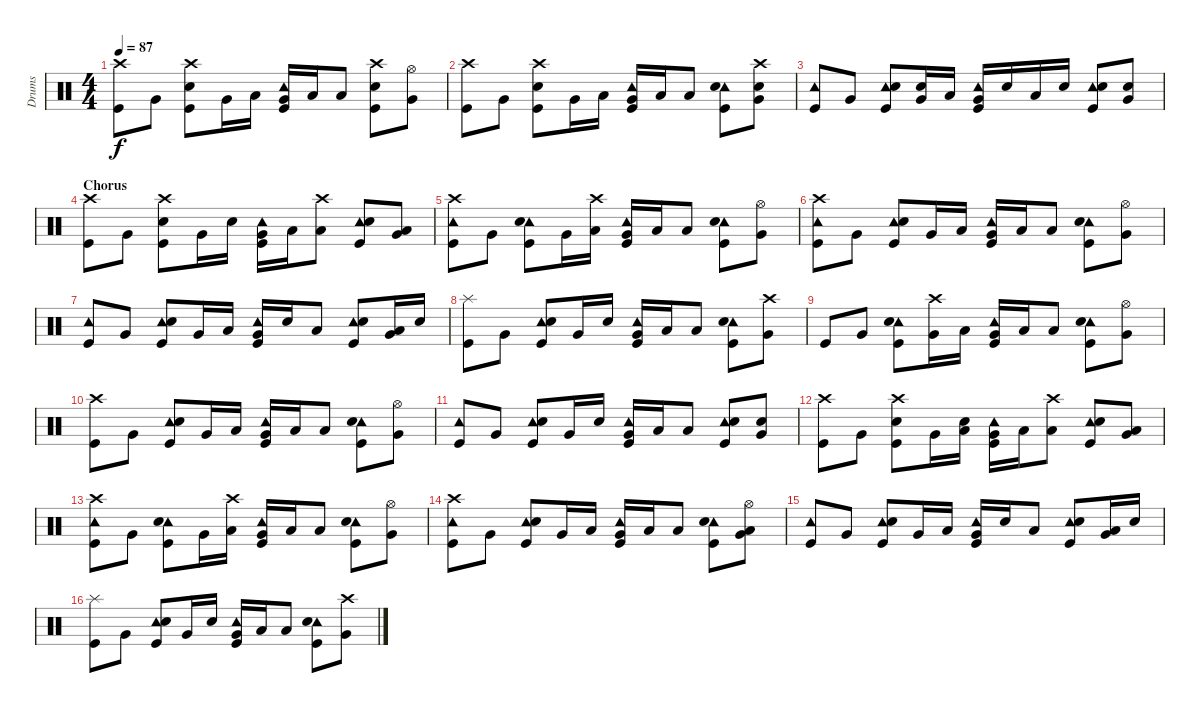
\track ("Drums" "Drums") {instrument percussion}
\staff {score}
\articulation defaults
\ts (4 4)
\tempo 87
\clef neutral
\ks c
("Crash high (hit)" "Kick (hit)").8{dy f} "Very Low Tom (hit)".8 ("Crash high (hit)" "Snare (hit) 2" "Kick (hit)").8 "Very Low Tom (hit)".16 "Low Tom (hit)".16 ("Tambourine (hit)" "Very Low Tom (hit)" "Kick (hit)").16 "Low Tom (hit)".16 "Low Floor Tom (hit)".8 ("Crash high (hit)" "Snare (hit) 2" "Kick (hit)").8 ("Hi-Hat (open)" "Very Low Tom (hit)").8 |
("Crash high (hit)" "Kick (hit)").8 "Very Low Tom (hit)".8 ("Crash high (hit)" "Snare (hit) 2" "Kick (hit)").8 "Very Low Tom (hit)".16 "Low Tom (hit)".16 ("Tambourine (hit)" "Very Low Tom (hit)" "Kick (hit)").16 "Low Tom (hit)".16 "Low Floor Tom (hit)".8 ("Tambourine (hit)" "Snare (hit) 2" "Kick (hit)").8 ("Crash high (hit)" "Snare (hit) 2" "Very Low Tom (hit)").8 |
("Tambourine (hit)" "Kick (hit)").8 "Very Low Tom (hit)".8 ("Tambourine (hit)" "Snare (hit) 2" "Kick (hit)").8 ("Snare (hit) 2" "Very Low Tom (hit)").16 "Low Tom (hit)".16 ("Tambourine (hit)" "Very Low Tom (hit)" "Kick (hit)").16 "Snare (hit) 2".16 "Low Floor Tom (hit)".16 "Snare (hit) 2".16 ("Tambourine (hit)" "Snare (hit) 2" "Kick (hit)").8 ("Snare (hit) 2" "Very Low Tom (hit)").8 |
\section ("" "Chorus")
("Crash high (hit)" "Kick (hit)").8 "Very Low Tom (hit)".8 ("Crash high (hit)" "Snare (hit) 2" "Kick (hit)").8 "Very Low Tom (hit)".16 "Snare (hit) 2".16 ("Tambourine (hit)" "Very Low Tom (hit)" "Kick (hit)").16 "Low Tom (hit)".16 ("Crash high (hit)" "Low Floor Tom (hit)").8 ("Tambourine (hit)" "Snare (hit) 2" "Kick (hit)").8 ("Low Tom (hit)" "Very Low Tom (hit)").8 |
("Tambourine (hit)" "Crash high (hit)" "Kick (hit)").8 "Very Low Tom (hit)".8 ("Tambourine (hit)" "Snare (hit) 2" "Kick (hit)").8 "Very Low Tom (hit)".16 ("Crash high (hit)" "Low Tom (hit)").16 ("Tambourine (hit)" "Very Low Tom (hit)" "Kick (hit)").16 "Low Tom (hit)".16 "Low Floor Tom (hit)".8 ("Tambourine (hit)" "Snare (hit) 2" "Kick (hit)").8 ("Hi-Hat (open)" "Very Low Tom (hit)").8 |
("Tambourine (hit)" "Crash high (hit)" "Kick (hit)").8 "Very Low Tom (hit)".8 ("Tambourine (hit)" "Snare (hit) 2" "Kick (hit)").8 "Very Low Tom (hit)".16 "Low Tom (hit)".16 ("Tambourine (hit)" "Very Low Tom (hit)" "Kick (hit)").16 "Low Tom (hit)".16 "Low Floor Tom (hit)".8 ("Tambourine (hit)" "Snare (hit) 2" "Kick (hit)").8 ("Hi-Hat (open)" "Very Low Tom (hit)").8 |
("Tambourine (hit)" "Kick (hit)").8 "Very Low Tom (hit)".8 ("Tambourine (hit)" "Snare (hit) 2" "Kick (hit)").8 "Very Low Tom (hit)".16 "Low Tom (hit)".16 ("Tambourine (hit)" "Very Low Tom (hit)" "Kick (hit)").16 "Snare (hit) 2".16 "Low Floor Tom (hit)".8 ("Tambourine (hit)" "Snare (hit) 2" "Kick (hit)").8 ("Low Tom (hit)" "Very Low Tom (hit)").16 "Snare (hit) 2".16 |
("Splash (hit)" "Kick (hit)").8 "Very Low Tom (hit)".8 ("Tambourine (hit)" "Snare (hit) 2" "Kick (hit)").8 "Very Low Tom (hit)".16 "Snare (hit) 2".16 ("Tambourine (hit)" "Very Low Tom (hit)" "Kick (hit)").16 "Low Tom (hit)".16 "Low Floor Tom (hit)".8 ("Tambourine (hit)" "Snare (hit) 2" "Kick (hit)").8 ("Crash high (hit)" "Very Low Tom (hit)").8 |
"Kick (hit)".8 "Very Low Tom (hit)".8 ("Tambourine (hit)" "Snare (hit) 2" "Kick (hit)").8 ("Crash high (hit)" "Very Low Tom (hit)").16 "Low Tom (hit)".16 ("Tambourine (hit)" "Very Low Tom (hit)" "Kick (hit)").16 "Low Tom (hit)".16 "Low Floor Tom (hit)".8 ("Tambourine (hit)" "Snare (hit) 2" "Kick (hit)").8 ("Hi-Hat (open)" "Very Low Tom (hit)").8 |
("Crash high (hit)" "Kick (hit)").8 "Very Low Tom (hit)".8 ("Tambourine (hit)" "Snare (hit) 2" "Kick (hit)").8 "Very Low Tom (hit)".16 "Low Tom (hit)".16 ("Tambourine (hit)" "Very Low Tom (hit)" "Kick (hit)").16 "Low Tom (hit)".16 "Low Floor Tom (hit)".8 ("Tambourine (hit)" "Snare (hit) 2" "Kick (hit)").8 ("Hi-Hat (open)" "Very Low Tom (hit)").8 |
("Tambourine (hit)" "Kick (hit)").8 "Very Low Tom (hit)".8 ("Tambourine (hit)" "Snare (hit) 2" "Kick (hit)").8 "Very Low Tom (hit)".16 "Snare (hit) 2".16 ("Tambourine (hit)" "Very Low Tom (hit)" "Kick (hit)").16 "Low Tom (hit)".16 "Low Floor Tom (hit)".8 ("Tambourine (hit)" "Snare (hit) 2" "Kick (hit)").8 ("Snare (hit) 2" "Very Low Tom (hit)").8 |
("Crash high (hit)" "Kick (hit)").8 "Very Low Tom (hit)".8 ("Crash high (hit)" "Snare (hit) 2" "Kick (hit)").8 "Very Low Tom (hit)".16 ("Snare (hit) 2" "Low Tom (hit)").16 ("Tambourine (hit)" "Very Low Tom (hit)" "Kick (hit)").16 "Low Tom (hit)".16 ("Crash high (hit)" "Low Floor Tom (hit)").8 ("Tambourine (hit)" "Snare (hit) 2" "Kick (hit)").8 ("Low Tom (hit)" "Very Low Tom (hit)").8 |
("Tambourine (hit)" "Crash high (hit)" "Kick (hit)").8 "Very Low Tom (hit)".8 ("Tambourine (hit)" "Snare (hit) 2" "Kick (hit)").8 "Very Low Tom (hit)".16 ("Crash high (hit)" "Low Tom (hit)").16 ("Tambourine (hit)" "Very Low Tom (hit)" "Kick (hit)").16 "Low Tom (hit)".16 "Low Floor Tom (hit)".8 ("Tambourine (hit)" "Snare (hit) 2" "Kick (hit)").8 ("Hi-Hat (open)" "Very Low Tom (hit)").8 |
("Tambourine (hit)" "Crash high (hit)" "Kick (hit)").8 "Very Low Tom (hit)".8 ("Tambourine (hit)" "Snare (hit) 2" "Kick (hit)").8 "Very Low Tom (hit)".16 "Low Tom (hit)".16 ("Tambourine (hit)" "Very Low Tom (hit)" "Kick (hit)").16 "Low Tom (hit)".16 "Low Floor Tom (hit)".8 ("Tambourine (hit)" "Snare (hit) 2" "Kick (hit)").8 ("Hi-Hat (open)" "Low Tom (hit)" "Very Low Tom (hit)").8 |
("Tambourine (hit)" "Kick (hit)").8 "Very Low Tom (hit)".8 ("Tambourine (hit)" "Snare (hit) 2" "Kick (hit)").8 "Very Low Tom (hit)".16 "Low Tom (hit)".16 ("Tambourine (hit)" "Very Low Tom (hit)" "Kick (hit)").16 "Snare (hit) 2".16 "Low Floor Tom (hit)".8 ("Tambourine (hit)" "Snare (hit) 2" "Kick (hit)").8 ("Low Tom (hit)" "Very Low Tom (hit)").16 "Snare (hit) 2".16 |
("Splash (hit)" "Kick (hit)").8 "Very Low Tom (hit)".8 ("Tambourine (hit)" "Snare (hit) 2" "Kick (hit)").8 "Very Low Tom (hit)".16 "Snare (hit) 2".16 ("Tambourine (hit)" "Very Low Tom (hit)" "Kick (hit)").16 "Low Tom (hit)".16 "Low Floor Tom (hit)".8 ("Tambourine (hit)" "Snare (hit) 2" "Kick (hit)").8 ("Crash high (hit)" "Very Low Tom (hit)").8
